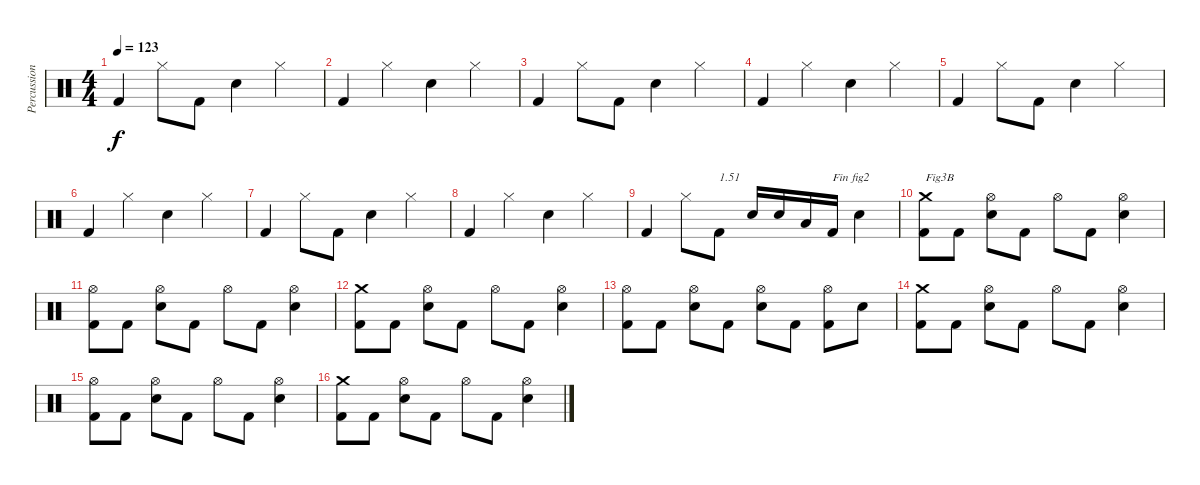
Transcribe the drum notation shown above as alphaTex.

\track ("Percussions" "Percussion") {instrument percussion}
\staff {score}
\articulation defaults
\ts (4 4)
\tempo 123
\clef neutral
\ks c "Kick (hit) 2".4{dy f} "Hi-Hat (closed)".8 "Kick (hit) 2".8 "Electric Snare (hit)".4 "Hi-Hat (closed)".4
|
"Kick (hit) 2".4 "Hi-Hat (closed)".4 "Electric Snare (hit)".4 "Hi-Hat (closed)".4 |
"Kick (hit) 2".4 "Hi-Hat (closed)".8 "Kick (hit) 2".8 "Electric Snare (hit)".4 "Hi-Hat (closed)".4 |
"Kick (hit) 2".4 "Hi-Hat (closed)".4 "Electric Snare (hit)".4 "Hi-Hat (closed)".4 |
"Kick (hit) 2".4 "Hi-Hat (closed)".8 "Kick (hit) 2".8 "Electric Snare (hit)".4 "Hi-Hat (closed)".4 |
"Kick (hit) 2".4 "Hi-Hat (closed)".4 "Electric Snare (hit)".4 "Hi-Hat (closed)".4 |
"Kick (hit) 2".4 "Hi-Hat (closed)".8 "Kick (hit) 2".8 "Electric Snare (hit)".4 "Hi-Hat (closed)".4 |
"Kick (hit) 2".4 "Hi-Hat (closed)".4 "Electric Snare (hit)".4 "Hi-Hat (closed)".4 |
"Kick (hit) 2".4 "Hi-Hat (closed)".8 "Kick (hit) 2".8{txt "1.51"} "Electric Snare (hit)".16 "Electric Snare (hit)".16 "Low Floor Tom (hit)".16 "Kick (hit) 2".16{txt "Fin fig2"} "Electric Snare (hit)".4 |
("Kick (hit) 2" "Crash medium (hit)").8{txt "Fig3B"} "Kick (hit) 2".8 ("Electric Snare (hit)" "Hi-Hat (open)").8 "Kick (hit) 2".8 "Hi-Hat (open)".8 "Kick (hit) 2".8 ("Electric Snare (hit)" "Hi-Hat (open)").4 |
("Kick (hit) 2" "Hi-Hat (open)").8 "Kick (hit) 2".8 ("Electric Snare (hit)" "Hi-Hat (open)").8 "Kick (hit) 2".8 "Hi-Hat (open)".8 "Kick (hit) 2".8 ("Electric Snare (hit)" "Hi-Hat (open)").4 |
("Kick (hit) 2" "Crash medium (hit)").8 "Kick (hit) 2".8 ("Electric Snare (hit)" "Hi-Hat (open)").8 "Kick (hit) 2".8 "Hi-Hat (open)".8 "Kick (hit) 2".8 ("Electric Snare (hit)" "Hi-Hat (open)").4 |
("Kick (hit) 2" "Hi-Hat (open)").8 "Kick (hit) 2".8 ("Electric Snare (hit)" "Hi-Hat (open)").8 "Kick (hit) 2".8 ("Electric Snare (hit)" "Hi-Hat (open)").8 "Kick (hit) 2".8 ("Kick (hit) 2" "Hi-Hat (open)").8 "Electric Snare (hit)".8 |
("Kick (hit) 2" "Crash medium (hit)").8 "Kick (hit) 2".8 ("Electric Snare (hit)" "Hi-Hat (open)").8 "Kick (hit) 2".8 "Hi-Hat (open)".8 "Kick (hit) 2".8 ("Electric Snare (hit)" "Hi-Hat (open)").4 |
("Kick (hit) 2" "Hi-Hat (open)").8 "Kick (hit) 2".8 ("Electric Snare (hit)" "Hi-Hat (open)").8 "Kick (hit) 2".8 "Hi-Hat (open)".8 "Kick (hit) 2".8 ("Electric Snare (hit)" "Hi-Hat (open)").4 |
("Kick (hit) 2" "Crash medium (hit)").8 "Kick (hit) 2".8 ("Electric Snare (hit)" "Hi-Hat (open)").8 "Kick (hit) 2".8 "Hi-Hat (open)".8 "Kick (hit) 2".8 ("Electric Snare (hit)" "Hi-Hat (open)").4
